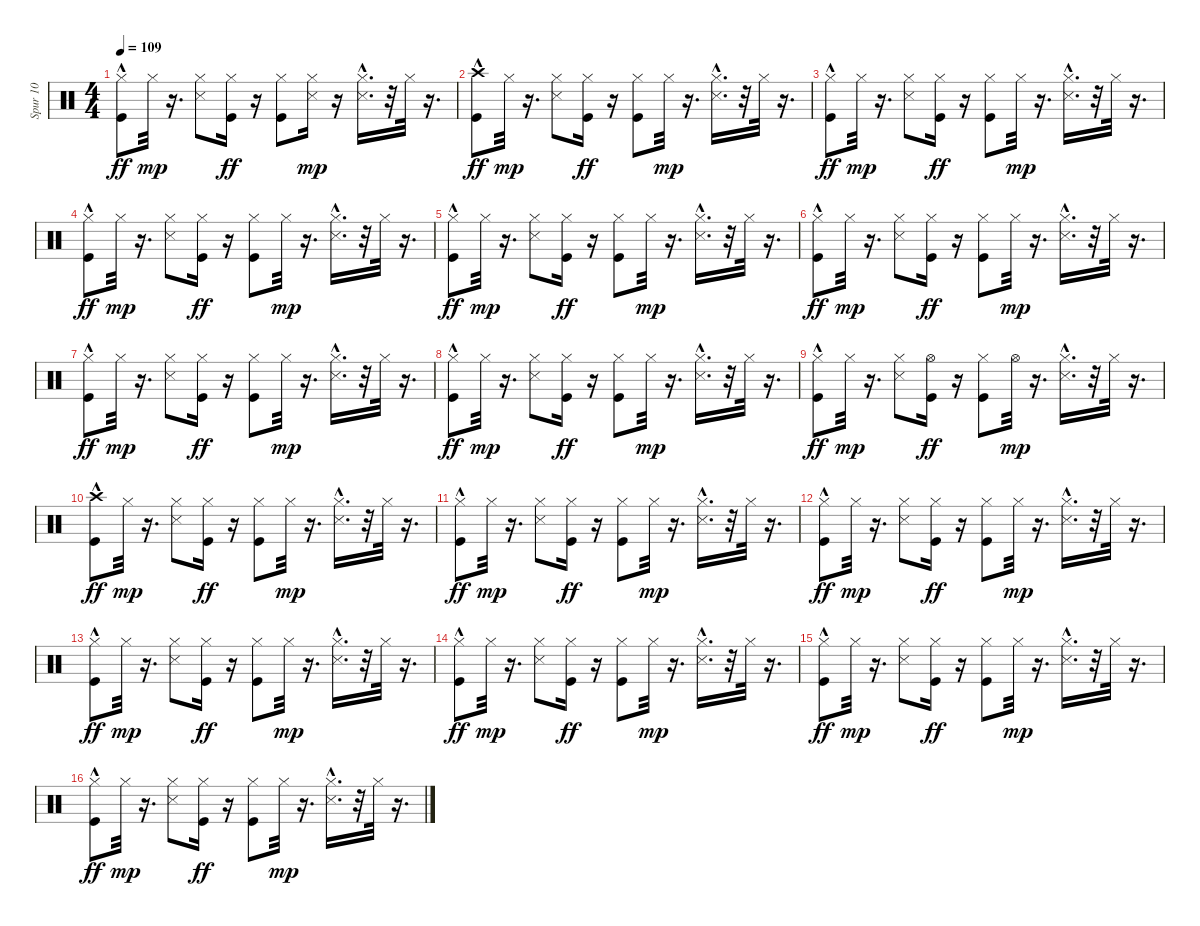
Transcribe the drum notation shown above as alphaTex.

\track ("Spur 10" "Spur 10") {instrument percussion}
\staff {score}
\articulation defaults
\ts (4 4)
\tempo 109
\clef neutral
\ks c
("Hi-Hat (closed)" "Kick (hit)"{hac}).8{dy ff} "Hi-Hat (closed)".32{dy mp} r.16{d} ("Hi-Hat (closed)" "Snare (side stick) 3").8 ("Hi-Hat (closed)" "Kick (hit)").16{dy ff} r.16 ("Hi-Hat (closed)" "Kick (hit)").8 ("Snare (side stick) 3" "Hi-Hat (closed)").16{dy mp} r.16 ("Hi-Hat (closed)" "Snare (side stick) 3"{hac}).16{d} r.32 "Hi-Hat (closed)".32 r.16{d} |
("Crash high (hit)" "Kick (hit)"{hac}).8{dy ff} "Hi-Hat (closed)".32{dy mp} r.16{d} ("Hi-Hat (closed)" "Snare (side stick) 3").8 ("Hi-Hat (closed)" "Kick (hit)").16{dy ff} r.16 ("Hi-Hat (closed)" "Kick (hit)").8 "Hi-Hat (closed)".32{dy mp} r.16{d} ("Hi-Hat (closed)" "Snare (side stick) 3"{hac}).16{d} r.32 "Hi-Hat (closed)".32 r.16{d} |
("Hi-Hat (closed)" "Kick (hit)"{hac}).8{dy ff} "Hi-Hat (closed)".32{dy mp} r.16{d} ("Hi-Hat (closed)" "Snare (side stick) 3").8 ("Hi-Hat (closed)" "Kick (hit)").16{dy ff} r.16 ("Hi-Hat (closed)" "Kick (hit)").8 "Hi-Hat (closed)".32{dy mp} r.16{d} ("Hi-Hat (closed)" "Snare (side stick) 3"{hac}).16{d} r.32 "Hi-Hat (closed)".32 r.16{d} |
("Hi-Hat (closed)" "Kick (hit)"{hac}).8{dy ff} "Hi-Hat (closed)".32{dy mp} r.16{d} ("Hi-Hat (closed)" "Snare (side stick) 3").8 ("Hi-Hat (closed)" "Kick (hit)").16{dy ff} r.16 ("Hi-Hat (closed)" "Kick (hit)").8 "Hi-Hat (closed)".32{dy mp} r.16{d} ("Hi-Hat (closed)" "Snare (side stick) 3"{hac}).16{d} r.32 "Hi-Hat (closed)".32 r.16{d} |
("Hi-Hat (closed)" "Kick (hit)"{hac}).8{dy ff} "Hi-Hat (closed)".32{dy mp} r.16{d} ("Hi-Hat (closed)" "Snare (side stick) 3").8 ("Hi-Hat (closed)" "Kick (hit)").16{dy ff} r.16 ("Hi-Hat (closed)" "Kick (hit)").8 "Hi-Hat (closed)".32{dy mp} r.16{d} ("Hi-Hat (closed)" "Snare (side stick) 3"{hac}).16{d} r.32 "Hi-Hat (closed)".32 r.16{d} |
("Hi-Hat (closed)" "Kick (hit)"{hac}).8{dy ff} "Hi-Hat (closed)".32{dy mp} r.16{d} ("Hi-Hat (closed)" "Snare (side stick) 3").8 ("Hi-Hat (closed)" "Kick (hit)").16{dy ff} r.16 ("Hi-Hat (closed)" "Kick (hit)").8 "Hi-Hat (closed)".32{dy mp} r.16{d} ("Hi-Hat (closed)" "Snare (side stick) 3"{hac}).16{d} r.32 "Hi-Hat (closed)".32 r.16{d} |
("Hi-Hat (closed)" "Kick (hit)"{hac}).8{dy ff} "Hi-Hat (closed)".32{dy mp} r.16{d} ("Hi-Hat (closed)" "Snare (side stick) 3").8 ("Hi-Hat (closed)" "Kick (hit)").16{dy ff} r.16 ("Hi-Hat (closed)" "Kick (hit)").8 "Hi-Hat (closed)".32{dy mp} r.16{d} ("Hi-Hat (closed)" "Snare (side stick) 3"{hac}).16{d} r.32 "Hi-Hat (closed)".32 r.16{d} |
("Hi-Hat (closed)" "Kick (hit)"{hac}).8{dy ff} "Hi-Hat (closed)".32{dy mp} r.16{d} ("Hi-Hat (closed)" "Snare (side stick) 3").8 ("Hi-Hat (closed)" "Kick (hit)").16{dy ff} r.16 ("Hi-Hat (closed)" "Kick (hit)").8 "Hi-Hat (closed)".32{dy mp} r.16{d} ("Hi-Hat (closed)" "Snare (side stick) 3"{hac}).16{d} r.32 "Hi-Hat (closed)".32 r.16{d} |
("Hi-Hat (closed)" "Kick (hit)"{hac}).8{dy ff} "Hi-Hat (closed)".32{dy mp} r.16{d} ("Hi-Hat (closed)" "Snare (side stick) 3").8 ("Hi-Hat (open)" "Kick (hit)").16{dy ff} r.16 ("Hi-Hat (closed)" "Kick (hit)").8 "Hi-Hat (open)".32{dy mp} r.16{d} ("Hi-Hat (closed)" "Snare (side stick) 3"{hac}).16{d} r.32 "Hi-Hat (closed)".32 r.16{d} |
("Crash high (hit)" "Kick (hit)"{hac}).8{dy ff} "Hi-Hat (closed)".32{dy mp} r.16{d} ("Hi-Hat (closed)" "Snare (side stick) 3").8 ("Hi-Hat (closed)" "Kick (hit)").16{dy ff} r.16 ("Hi-Hat (closed)" "Kick (hit)").8 "Hi-Hat (closed)".32{dy mp} r.16{d} ("Hi-Hat (closed)" "Snare (side stick) 3"{hac}).16{d} r.32 "Hi-Hat (closed)".32 r.16{d} |
("Hi-Hat (closed)" "Kick (hit)"{hac}).8{dy ff} "Hi-Hat (closed)".32{dy mp} r.16{d} ("Hi-Hat (closed)" "Snare (side stick) 3").8 ("Hi-Hat (closed)" "Kick (hit)").16{dy ff} r.16 ("Hi-Hat (closed)" "Kick (hit)").8 "Hi-Hat (closed)".32{dy mp} r.16{d} ("Hi-Hat (closed)" "Snare (side stick) 3"{hac}).16{d} r.32 "Hi-Hat (closed)".32 r.16{d} |
("Hi-Hat (closed)" "Kick (hit)"{hac}).8{dy ff} "Hi-Hat (closed)".32{dy mp} r.16{d} ("Hi-Hat (closed)" "Snare (side stick) 3").8 ("Hi-Hat (closed)" "Kick (hit)").16{dy ff} r.16 ("Hi-Hat (closed)" "Kick (hit)").8 "Hi-Hat (closed)".32{dy mp} r.16{d} ("Hi-Hat (closed)" "Snare (side stick) 3"{hac}).16{d} r.32 "Hi-Hat (closed)".32 r.16{d} |
("Hi-Hat (closed)" "Kick (hit)"{hac}).8{dy ff} "Hi-Hat (closed)".32{dy mp} r.16{d} ("Hi-Hat (closed)" "Snare (side stick) 3").8 ("Hi-Hat (closed)" "Kick (hit)").16{dy ff} r.16 ("Hi-Hat (closed)" "Kick (hit)").8 "Hi-Hat (closed)".32{dy mp} r.16{d} ("Hi-Hat (closed)" "Snare (side stick) 3"{hac}).16{d} r.32 "Hi-Hat (closed)".32 r.16{d} |
("Hi-Hat (closed)" "Kick (hit)"{hac}).8{dy ff} "Hi-Hat (closed)".32{dy mp} r.16{d} ("Hi-Hat (closed)" "Snare (side stick) 3").8 ("Hi-Hat (closed)" "Kick (hit)").16{dy ff} r.16 ("Hi-Hat (closed)" "Kick (hit)").8 "Hi-Hat (closed)".32{dy mp} r.16{d} ("Hi-Hat (closed)" "Snare (side stick) 3"{hac}).16{d} r.32 "Hi-Hat (closed)".32 r.16{d} |
("Hi-Hat (closed)" "Kick (hit)"{hac}).8{dy ff} "Hi-Hat (closed)".32{dy mp} r.16{d} ("Hi-Hat (closed)" "Snare (side stick) 3").8 ("Hi-Hat (closed)" "Kick (hit)").16{dy ff} r.16 ("Hi-Hat (closed)" "Kick (hit)").8 "Hi-Hat (closed)".32{dy mp} r.16{d} ("Hi-Hat (closed)" "Snare (side stick) 3"{hac}).16{d} r.32 "Hi-Hat (closed)".32 r.16{d} |
("Hi-Hat (closed)" "Kick (hit)"{hac}).8{dy ff} "Hi-Hat (closed)".32{dy mp} r.16{d} ("Hi-Hat (closed)" "Snare (side stick) 3").8 ("Hi-Hat (closed)" "Kick (hit)").16{dy ff} r.16 ("Hi-Hat (closed)" "Kick (hit)").8 "Hi-Hat (closed)".32{dy mp} r.16{d} ("Hi-Hat (closed)" "Snare (side stick) 3"{hac}).16{d} r.32 "Hi-Hat (closed)".32 r.16{d}
